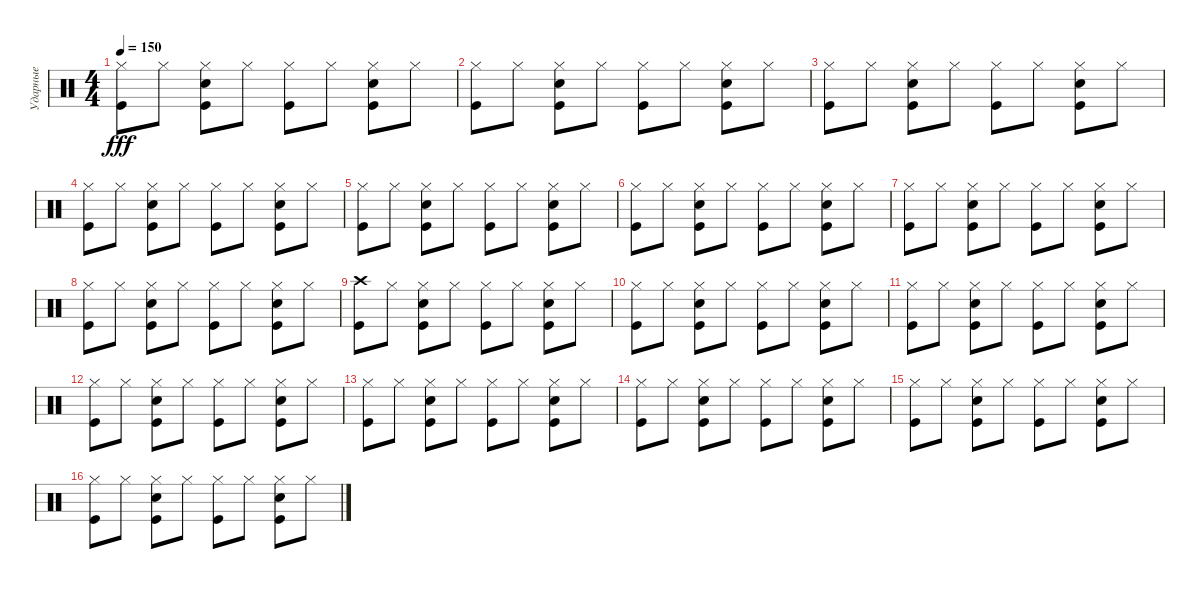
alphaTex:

\track ("Ударные" "Ударные") {instrument percussion}
\staff {score}
\articulation defaults
\ts (4 4)
\tempo 150
\clef neutral
\ks c
("Kick (hit)" "Hi-Hat (closed)").8{dy fff} "Hi-Hat (closed)".8 ("Hi-Hat (closed)" "Electric Snare (hit)" "Kick (hit)").8 "Hi-Hat (closed)".8 ("Hi-Hat (closed)" "Kick (hit)").8 "Hi-Hat (closed)".8 ("Hi-Hat (closed)" "Kick (hit)" "Electric Snare (hit)").8 "Hi-Hat (closed)".8 |
("Kick (hit)" "Hi-Hat (closed)").8 "Hi-Hat (closed)".8 ("Hi-Hat (closed)" "Electric Snare (hit)" "Kick (hit)").8 "Hi-Hat (closed)".8 ("Hi-Hat (closed)" "Kick (hit)").8 "Hi-Hat (closed)".8 ("Hi-Hat (closed)" "Kick (hit)" "Electric Snare (hit)").8 "Hi-Hat (closed)".8 |
("Kick (hit)" "Hi-Hat (closed)").8 "Hi-Hat (closed)".8 ("Hi-Hat (closed)" "Electric Snare (hit)" "Kick (hit)").8 "Hi-Hat (closed)".8 ("Hi-Hat (closed)" "Kick (hit)").8 "Hi-Hat (closed)".8 ("Hi-Hat (closed)" "Kick (hit)" "Electric Snare (hit)").8 "Hi-Hat (closed)".8 |
("Kick (hit)" "Hi-Hat (closed)").8 "Hi-Hat (closed)".8 ("Hi-Hat (closed)" "Electric Snare (hit)" "Kick (hit)").8 "Hi-Hat (closed)".8 ("Hi-Hat (closed)" "Kick (hit)").8 "Hi-Hat (closed)".8 ("Hi-Hat (closed)" "Kick (hit)" "Electric Snare (hit)").8 "Hi-Hat (closed)".8 |
("Kick (hit)" "Hi-Hat (closed)").8 "Hi-Hat (closed)".8 ("Hi-Hat (closed)" "Electric Snare (hit)" "Kick (hit)").8 "Hi-Hat (closed)".8 ("Hi-Hat (closed)" "Kick (hit)").8 "Hi-Hat (closed)".8 ("Hi-Hat (closed)" "Kick (hit)" "Electric Snare (hit)").8 "Hi-Hat (closed)".8 |
("Kick (hit)" "Hi-Hat (closed)").8 "Hi-Hat (closed)".8 ("Hi-Hat (closed)" "Electric Snare (hit)" "Kick (hit)").8 "Hi-Hat (closed)".8 ("Hi-Hat (closed)" "Kick (hit)").8 "Hi-Hat (closed)".8 ("Hi-Hat (closed)" "Kick (hit)" "Electric Snare (hit)").8 "Hi-Hat (closed)".8 |
("Kick (hit)" "Hi-Hat (closed)").8 "Hi-Hat (closed)".8 ("Hi-Hat (closed)" "Electric Snare (hit)" "Kick (hit)").8 "Hi-Hat (closed)".8 ("Hi-Hat (closed)" "Kick (hit)").8 "Hi-Hat (closed)".8 ("Hi-Hat (closed)" "Kick (hit)" "Electric Snare (hit)").8 "Hi-Hat (closed)".8 |
("Kick (hit)" "Hi-Hat (closed)").8 "Hi-Hat (closed)".8 ("Hi-Hat (closed)" "Electric Snare (hit)" "Kick (hit)").8 "Hi-Hat (closed)".8 ("Hi-Hat (closed)" "Kick (hit)").8 "Hi-Hat (closed)".8 ("Hi-Hat (closed)" "Kick (hit)" "Electric Snare (hit)").8 "Hi-Hat (closed)".8 |
("Crash high (hit)" "Kick (hit)").8 "Hi-Hat (closed)".8 ("Hi-Hat (closed)" "Electric Snare (hit)" "Kick (hit)").8 "Hi-Hat (closed)".8 ("Hi-Hat (closed)" "Kick (hit)").8 "Hi-Hat (closed)".8 ("Hi-Hat (closed)" "Electric Snare (hit)" "Kick (hit)").8 "Hi-Hat (closed)".8 |
("Kick (hit)" "Hi-Hat (closed)").8 "Hi-Hat (closed)".8 ("Hi-Hat (closed)" "Electric Snare (hit)" "Kick (hit)").8 "Hi-Hat (closed)".8 ("Hi-Hat (closed)" "Kick (hit)").8 "Hi-Hat (closed)".8 ("Hi-Hat (closed)" "Kick (hit)" "Electric Snare (hit)").8 "Hi-Hat (closed)".8 |
("Kick (hit)" "Hi-Hat (closed)").8 "Hi-Hat (closed)".8 ("Hi-Hat (closed)" "Electric Snare (hit)" "Kick (hit)").8 "Hi-Hat (closed)".8 ("Hi-Hat (closed)" "Kick (hit)").8 "Hi-Hat (closed)".8 ("Hi-Hat (closed)" "Kick (hit)" "Electric Snare (hit)").8 "Hi-Hat (closed)".8 |
("Kick (hit)" "Hi-Hat (closed)").8 "Hi-Hat (closed)".8 ("Hi-Hat (closed)" "Electric Snare (hit)" "Kick (hit)").8 "Hi-Hat (closed)".8 ("Hi-Hat (closed)" "Kick (hit)").8 "Hi-Hat (closed)".8 ("Hi-Hat (closed)" "Kick (hit)" "Electric Snare (hit)").8 "Hi-Hat (closed)".8 |
("Kick (hit)" "Hi-Hat (closed)").8 "Hi-Hat (closed)".8 ("Hi-Hat (closed)" "Electric Snare (hit)" "Kick (hit)").8 "Hi-Hat (closed)".8 ("Hi-Hat (closed)" "Kick (hit)").8 "Hi-Hat (closed)".8 ("Hi-Hat (closed)" "Kick (hit)" "Electric Snare (hit)").8 "Hi-Hat (closed)".8 |
("Kick (hit)" "Hi-Hat (closed)").8 "Hi-Hat (closed)".8 ("Hi-Hat (closed)" "Electric Snare (hit)" "Kick (hit)").8 "Hi-Hat (closed)".8 ("Hi-Hat (closed)" "Kick (hit)").8 "Hi-Hat (closed)".8 ("Hi-Hat (closed)" "Kick (hit)" "Electric Snare (hit)").8 "Hi-Hat (closed)".8 |
("Kick (hit)" "Hi-Hat (closed)").8 "Hi-Hat (closed)".8 ("Hi-Hat (closed)" "Electric Snare (hit)" "Kick (hit)").8 "Hi-Hat (closed)".8 ("Hi-Hat (closed)" "Kick (hit)").8 "Hi-Hat (closed)".8 ("Hi-Hat (closed)" "Kick (hit)" "Electric Snare (hit)").8 "Hi-Hat (closed)".8 |
("Kick (hit)" "Hi-Hat (closed)").8 "Hi-Hat (closed)".8 ("Hi-Hat (closed)" "Electric Snare (hit)" "Kick (hit)").8 "Hi-Hat (closed)".8 ("Hi-Hat (closed)" "Kick (hit)").8 "Hi-Hat (closed)".8 ("Hi-Hat (closed)" "Kick (hit)" "Electric Snare (hit)").8 "Hi-Hat (closed)".8
